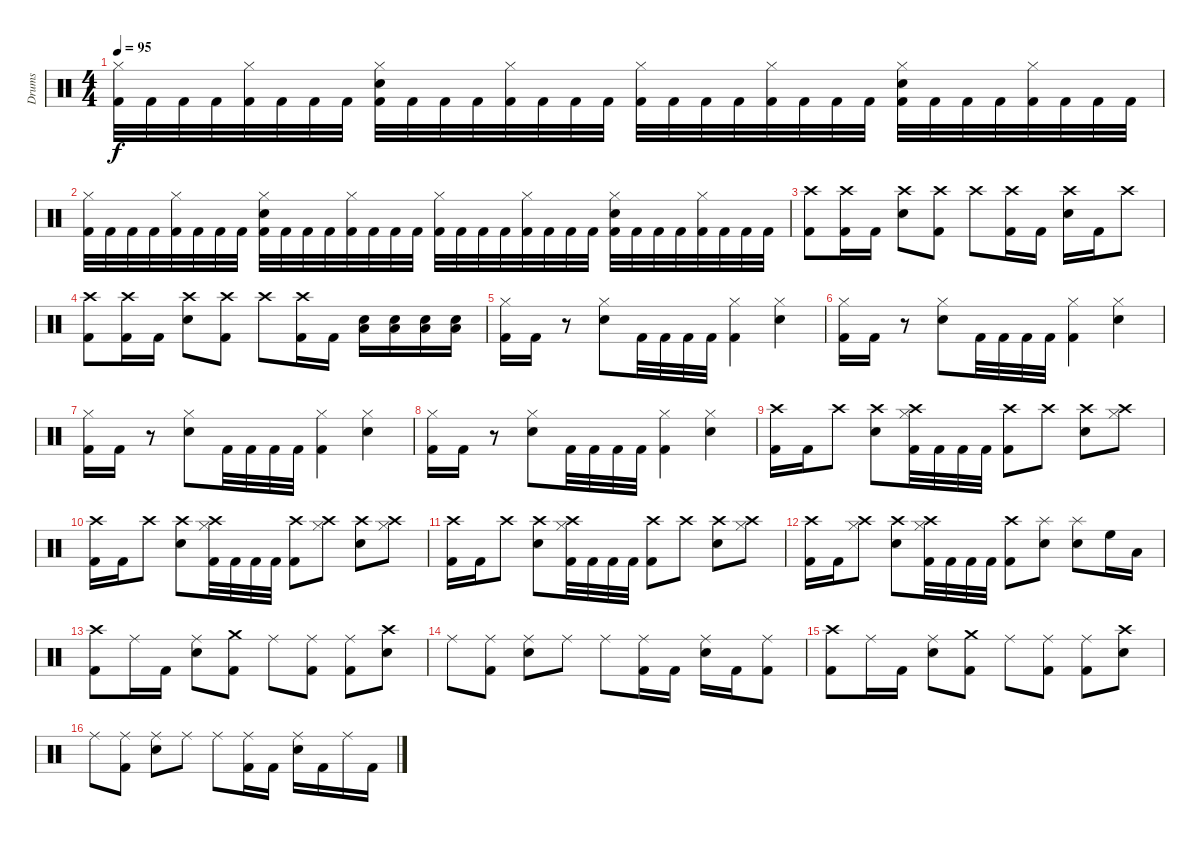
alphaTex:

\track ("Drums" "Drums") {instrument percussion}
\staff {score}
\articulation defaults
\ts (4 4)
\tempo 95
\clef neutral
\ks c
("Hi-Hat (closed)" "Kick (hit) 2").32{dy f} "Kick (hit) 2".32 "Kick (hit) 2".32 "Kick (hit) 2".32 ("Hi-Hat (closed)" "Kick (hit) 2").32 "Kick (hit) 2".32 "Kick (hit) 2".32 "Kick (hit) 2".32 ("Hi-Hat (closed)" "Snare (hit) 2" "Kick (hit) 2").32 "Kick (hit) 2".32 "Kick (hit) 2".32 "Kick (hit) 2".32 ("Hi-Hat (closed)" "Kick (hit) 2").32 "Kick (hit) 2".32 "Kick (hit) 2".32 "Kick (hit) 2".32 ("Hi-Hat (closed)" "Kick (hit) 2").32 "Kick (hit) 2".32 "Kick (hit) 2".32 "Kick (hit) 2".32 ("Hi-Hat (closed)" "Kick (hit) 2").32 "Kick (hit) 2".32 "Kick (hit) 2".32 "Kick (hit) 2".32 ("Hi-Hat (closed)" "Snare (hit) 2" "Kick (hit) 2").32 "Kick (hit) 2".32 "Kick (hit) 2".32 "Kick (hit) 2".32 ("Hi-Hat (closed)" "Kick (hit) 2").32 "Kick (hit) 2".32 "Kick (hit) 2".32 "Kick (hit) 2".32 |
("Hi-Hat (closed)" "Kick (hit) 2").32 "Kick (hit) 2".32 "Kick (hit) 2".32 "Kick (hit) 2".32 ("Hi-Hat (closed)" "Kick (hit) 2").32 "Kick (hit) 2".32 "Kick (hit) 2".32 "Kick (hit) 2".32 ("Hi-Hat (closed)" "Snare (hit) 2" "Kick (hit) 2").32 "Kick (hit) 2".32 "Kick (hit) 2".32 "Kick (hit) 2".32 ("Hi-Hat (closed)" "Kick (hit) 2").32 "Kick (hit) 2".32 "Kick (hit) 2".32 "Kick (hit) 2".32 ("Hi-Hat (closed)" "Kick (hit) 2").32 "Kick (hit) 2".32 "Kick (hit) 2".32 "Kick (hit) 2".32 ("Hi-Hat (closed)" "Kick (hit) 2").32 "Kick (hit) 2".32 "Kick (hit) 2".32 "Kick (hit) 2".32 ("Hi-Hat (closed)" "Snare (hit) 2" "Kick (hit) 2").32 "Kick (hit) 2".32 "Kick (hit) 2".32 "Kick (hit) 2".32 ("Hi-Hat (closed)" "Kick (hit) 2").32 "Kick (hit) 2".32 "Kick (hit) 2".32 "Kick (hit) 2".32 |
("Crash high (hit)" "Kick (hit) 2").8 ("Crash high (hit)" "Kick (hit) 2").16 "Kick (hit) 2".16 ("Crash high (hit)" "Snare (hit) 2").8 ("Crash high (hit)" "Kick (hit) 2").8 "Crash high (hit)".8 ("Crash high (hit)" "Kick (hit) 2").16 "Kick (hit) 2".16 ("Crash high (hit)" "Snare (hit) 2").16 "Kick (hit) 2".16 "Crash high (hit)".8 |
("Crash high (hit)" "Kick (hit) 2").8 ("Crash high (hit)" "Kick (hit) 2").16 "Kick (hit) 2".16 ("Crash high (hit)" "Snare (hit) 2").8 ("Crash high (hit)" "Kick (hit) 2").8 "Crash high (hit)".8 ("Crash high (hit)" "Kick (hit) 2").16 "Kick (hit) 2".16 ("Low Floor Tom (hit)" "Snare (hit) 2").16 ("Low Floor Tom (hit)" "Snare (hit) 2").16 ("Low Floor Tom (hit)" "Snare (hit) 2").16 ("Low Floor Tom (hit)" "Snare (hit) 2").16 |
("Hi-Hat (closed)" "Kick (hit) 2").16 "Kick (hit) 2".16 r.8 ("Hi-Hat (closed)" "Snare (hit) 2").8 "Kick (hit) 2".32 "Kick (hit) 2".32 "Kick (hit) 2".32 "Kick (hit) 2".32 ("Hi-Hat (closed)" "Kick (hit) 2").4 ("Hi-Hat (closed)" "Snare (hit) 2").4 |
("Hi-Hat (closed)" "Kick (hit) 2").16 "Kick (hit) 2".16 r.8 ("Hi-Hat (closed)" "Snare (hit) 2").8 "Kick (hit) 2".32 "Kick (hit) 2".32 "Kick (hit) 2".32 "Kick (hit) 2".32 ("Hi-Hat (closed)" "Kick (hit) 2").4 ("Hi-Hat (closed)" "Snare (hit) 2").4 |
("Hi-Hat (closed)" "Kick (hit) 2").16 "Kick (hit) 2".16 r.8 ("Hi-Hat (closed)" "Snare (hit) 2").8 "Kick (hit) 2".32 "Kick (hit) 2".32 "Kick (hit) 2".32 "Kick (hit) 2".32 ("Hi-Hat (closed)" "Kick (hit) 2").4 ("Hi-Hat (closed)" "Snare (hit) 2").4 |
("Hi-Hat (closed)" "Kick (hit) 2").16 "Kick (hit) 2".16 r.8 ("Hi-Hat (closed)" "Snare (hit) 2").8 "Kick (hit) 2".32 "Kick (hit) 2".32 "Kick (hit) 2".32 "Kick (hit) 2".32 ("Hi-Hat (closed)" "Kick (hit) 2").4 ("Hi-Hat (closed)" "Snare (hit) 2").4 |
("Crash high (hit)" "Kick (hit) 2").16 "Kick (hit) 2".16 "Crash high (hit)".8 ("Crash high (hit)" "Snare (hit) 2").8 ("Crash high (hit)" "Hi-Hat (closed)" "Kick (hit) 2").32 "Kick (hit) 2".32 "Kick (hit) 2".32 "Kick (hit) 2".32 ("Crash high (hit)" "Kick (hit) 2").8 "Crash high (hit)".8 ("Crash high (hit)" "Snare (hit) 2").8 ("Crash high (hit)" "Hi-Hat (closed)").8 |
("Crash high (hit)" "Kick (hit) 2").16 "Kick (hit) 2".16 "Crash high (hit)".8 ("Crash high (hit)" "Snare (hit) 2").8 ("Crash high (hit)" "Hi-Hat (closed)" "Kick (hit) 2").32 "Kick (hit) 2".32 "Kick (hit) 2".32 "Kick (hit) 2".32 ("Crash high (hit)" "Kick (hit) 2").8 ("Crash high (hit)" "Hi-Hat (closed)").8 ("Crash high (hit)" "Snare (hit) 2").8 ("Crash high (hit)" "Hi-Hat (closed)").8 |
("Crash high (hit)" "Kick (hit) 2").16 "Kick (hit) 2".16 "Crash high (hit)".8 ("Crash high (hit)" "Snare (hit) 2").8 ("Crash high (hit)" "Hi-Hat (closed)" "Kick (hit) 2").32 "Kick (hit) 2".32 "Kick (hit) 2".32 "Kick (hit) 2".32 ("Crash high (hit)" "Kick (hit) 2").8 "Crash high (hit)".8 ("Crash high (hit)" "Snare (hit) 2").8 ("Crash high (hit)" "Hi-Hat (closed)").8 |
("Crash high (hit)" "Kick (hit) 2").16 "Kick (hit) 2".16 ("Crash high (hit)" "Hi-Hat (closed)").8 ("Crash high (hit)" "Snare (hit) 2").8 ("Crash high (hit)" "Hi-Hat (closed)" "Kick (hit) 2").32 "Kick (hit) 2".32 "Kick (hit) 2".32 "Kick (hit) 2".32 ("Crash high (hit)" "Kick (hit) 2").8 ("Splash (hit)" "Snare (hit) 2").8 ("Splash (hit)" "Snare (hit) 2").8 "High Floor Tom (hit)".16 "Low Tom (hit)".16 |
("Crash high (hit)" "Kick (hit) 2").8 "Ride (middle)".16 "Kick (hit) 2".16 ("Ride (middle)" "Snare (hit) 2").8 ("Crash medium (hit)" "Kick (hit) 2").8 "Ride (middle)".8 ("Ride (middle)" "Kick (hit) 2").8 ("Ride (middle)" "Kick (hit) 2").8 ("Crash high (hit)" "Snare (hit) 2").8 |
"Ride (middle)".8 ("Ride (middle)" "Kick (hit) 2").8 ("Ride (middle)" "Snare (hit) 2").8 "Ride (middle)".8 "Ride (middle)".8 ("Ride (middle)" "Kick (hit) 2").16 "Kick (hit) 2".16 ("Ride (middle)" "Snare (hit) 2").16 "Kick (hit) 2".16 ("Ride (middle)" "Kick (hit) 2").8 |
("Crash high (hit)" "Kick (hit) 2").8 "Ride (middle)".16 "Kick (hit) 2".16 ("Ride (middle)" "Snare (hit) 2").8 ("Crash medium (hit)" "Kick (hit) 2").8 "Ride (middle)".8 ("Ride (middle)" "Kick (hit) 2").8 ("Ride (middle)" "Kick (hit) 2").8 ("Crash high (hit)" "Snare (hit) 2").8 |
"Ride (middle)".8 ("Ride (middle)" "Kick (hit) 2").8 ("Ride (middle)" "Snare (hit) 2").8 "Ride (middle)".8 "Ride (middle)".8 ("Ride (middle)" "Kick (hit) 2").16 "Kick (hit) 2".16 ("Ride (middle)" "Snare (hit) 2").16 "Kick (hit) 2".16 "Ride (middle)".16 "Kick (hit) 2".16
